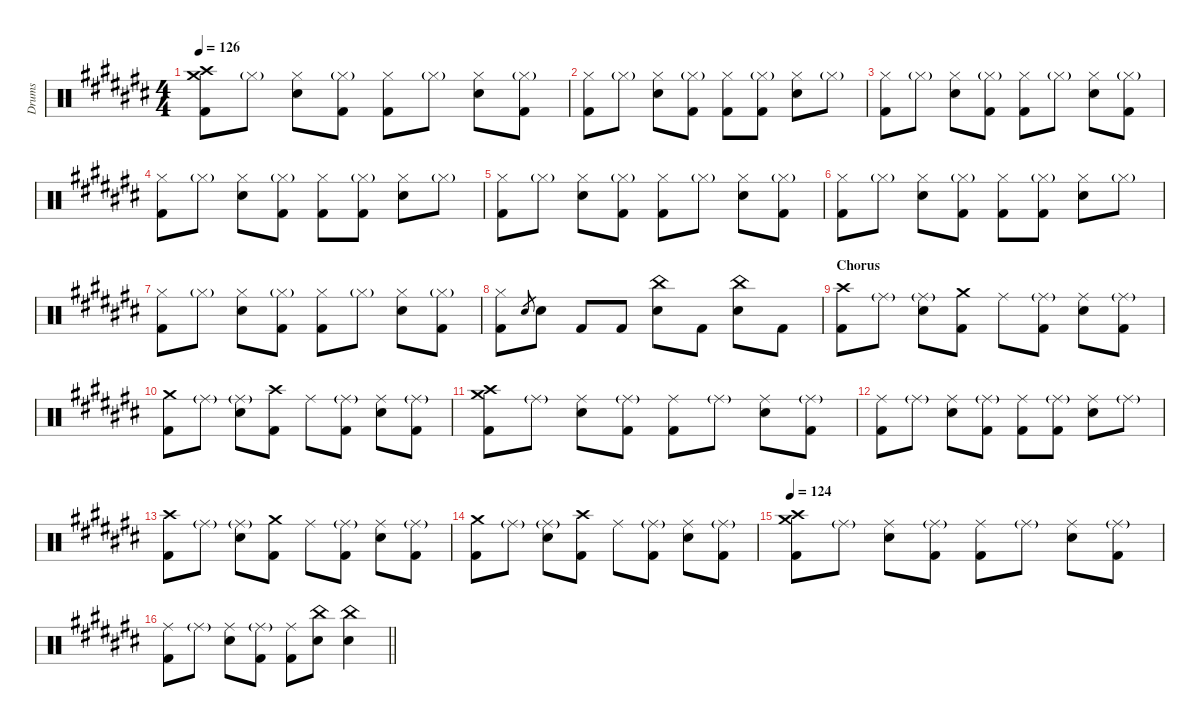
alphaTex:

\hideDynamics
\bracketExtendMode nobrackets
\otherSystemsTrackNameOrientation horizontal
\track ("Drumkit" "Drums") {defaultSystemsLayout 4 instrument percussion}
\staff {score}
\articulation defaults
\ts (4 4)
\tempo 126
\clef neutral
\ks c#
("Crash medium (hit)"{acc forcenatural} "Kick (hit) 2"{acc forcenatural} "Crash high (hit)"{acc forcenatural}).8{dy ff beam Down} "Hi-Hat (closed)"{g acc forcenatural}.8{beam Down} ("Hi-Hat (closed)"{acc forcenatural} "Snare (hit) 2"{acc forcenatural}).8{beam Down} ("Hi-Hat (closed)"{g acc forcenatural} "Kick (hit) 2"{acc forcenatural}).8{beam Down} ("Hi-Hat (closed)"{acc forcenatural} "Kick (hit) 2"{acc forcenatural}).8{beam Down} "Hi-Hat (closed)"{g acc forcenatural}.8{beam Down} ("Hi-Hat (closed)"{acc forcenatural} "Snare (hit) 2"{acc forcenatural}).8{beam Down} ("Hi-Hat (closed)"{g acc forcenatural} "Kick (hit) 2"{acc forcenatural}).8{beam Down} |
("Hi-Hat (closed)"{acc forcenatural} "Kick (hit) 2"{acc forcenatural}).8{beam Down} "Hi-Hat (closed)"{g acc forcenatural}.8{beam Down} ("Hi-Hat (closed)"{acc forcenatural} "Snare (hit) 2"{acc forcenatural}).8{beam Down} ("Hi-Hat (closed)"{g acc forcenatural} "Kick (hit) 2"{acc forcenatural}).8{beam Down} ("Hi-Hat (closed)"{acc forcenatural} "Kick (hit) 2"{acc forcenatural}).8{beam Down} ("Hi-Hat (closed)"{g acc forcenatural} "Kick (hit) 2"{acc forcenatural}).8{beam Down} ("Hi-Hat (closed)"{acc forcenatural} "Snare (hit) 2"{acc forcenatural}).8{beam Down} "Hi-Hat (closed)"{g acc forcenatural}.8{beam Down} |
("Hi-Hat (closed)"{acc forcenatural} "Kick (hit) 2"{acc forcenatural}).8{beam Down} "Hi-Hat (closed)"{g acc forcenatural}.8{beam Down} ("Hi-Hat (closed)"{acc forcenatural} "Snare (hit) 2"{acc forcenatural}).8{beam Down} ("Hi-Hat (closed)"{g acc forcenatural} "Kick (hit) 2"{acc forcenatural}).8{beam Down} ("Hi-Hat (closed)"{acc forcenatural} "Kick (hit) 2"{acc forcenatural}).8{beam Down} "Hi-Hat (closed)"{g acc forcenatural}.8{beam Down} ("Hi-Hat (closed)"{acc forcenatural} "Snare (hit) 2"{acc forcenatural}).8{beam Down} ("Hi-Hat (closed)"{g acc forcenatural} "Kick (hit) 2"{acc forcenatural}).8{beam Down} |
("Hi-Hat (closed)"{acc forcenatural} "Kick (hit) 2"{acc forcenatural}).8{beam Down} "Hi-Hat (closed)"{g acc forcenatural}.8{beam Down} ("Hi-Hat (closed)"{acc forcenatural} "Snare (hit) 2"{acc forcenatural}).8{beam Down} ("Hi-Hat (closed)"{g acc forcenatural} "Kick (hit) 2"{acc forcenatural}).8{beam Down} ("Hi-Hat (closed)"{acc forcenatural} "Kick (hit) 2"{acc forcenatural}).8{beam Down} ("Hi-Hat (closed)"{g acc forcenatural} "Kick (hit) 2"{acc forcenatural}).8{beam Down} ("Hi-Hat (closed)"{acc forcenatural} "Snare (hit) 2"{acc forcenatural}).8{beam Down} "Hi-Hat (closed)"{g acc forcenatural}.8{beam Down} |
("Hi-Hat (closed)"{acc forcenatural} "Kick (hit) 2"{acc forcenatural}).8{beam Down} "Hi-Hat (closed)"{g acc forcenatural}.8{beam Down} ("Hi-Hat (closed)"{acc forcenatural} "Snare (hit) 2"{acc forcenatural}).8{beam Down} ("Hi-Hat (closed)"{g acc forcenatural} "Kick (hit) 2"{acc forcenatural}).8{beam Down} ("Hi-Hat (closed)"{acc forcenatural} "Kick (hit) 2"{acc forcenatural}).8{beam Down} "Hi-Hat (closed)"{g acc forcenatural}.8{beam Down} ("Hi-Hat (closed)"{acc forcenatural} "Snare (hit) 2"{acc forcenatural}).8{beam Down} ("Hi-Hat (closed)"{g acc forcenatural} "Kick (hit) 2"{acc forcenatural}).8{beam Down} |
("Hi-Hat (closed)"{acc forcenatural} "Kick (hit) 2"{acc forcenatural}).8{beam Down} "Hi-Hat (closed)"{g acc forcenatural}.8{beam Down} ("Hi-Hat (closed)"{acc forcenatural} "Snare (hit) 2"{acc forcenatural}).8{beam Down} ("Hi-Hat (closed)"{g acc forcenatural} "Kick (hit) 2"{acc forcenatural}).8{beam Down} ("Hi-Hat (closed)"{acc forcenatural} "Kick (hit) 2"{acc forcenatural}).8{beam Down} ("Hi-Hat (closed)"{g acc forcenatural} "Kick (hit) 2"{acc forcenatural}).8{beam Down} ("Hi-Hat (closed)"{acc forcenatural} "Snare (hit) 2"{acc forcenatural}).8{beam Down} "Hi-Hat (closed)"{g acc forcenatural}.8{beam Down} |
("Hi-Hat (closed)"{acc forcenatural} "Kick (hit) 2"{acc forcenatural}).8{beam Down} "Hi-Hat (closed)"{g acc forcenatural}.8{beam Down} ("Hi-Hat (closed)"{acc forcenatural} "Snare (hit) 2"{acc forcenatural}).8{beam Down} ("Hi-Hat (closed)"{g acc forcenatural} "Kick (hit) 2"{acc forcenatural}).8{beam Down} ("Hi-Hat (closed)"{acc forcenatural} "Kick (hit) 2"{acc forcenatural}).8{beam Down} "Hi-Hat (closed)"{g acc forcenatural}.8{beam Down} ("Hi-Hat (closed)"{acc forcenatural} "Snare (hit) 2"{acc forcenatural}).8{beam Down} ("Hi-Hat (closed)"{g acc forcenatural} "Kick (hit) 2"{acc forcenatural}).8{beam Down} |
("Hi-Hat (closed)"{acc forcenatural} "Kick (hit) 2"{acc forcenatural}).8{beam Down} "Snare (hit) 2"{acc forcenatural}.8{gr beam Up} "Snare (hit) 2"{acc forcenatural}.8{beam Down} "Kick (hit) 2"{acc forcenatural}.8{beam Up} "Kick (hit) 2"{acc forcenatural}.8{beam Up} ("Snare (hit) 2"{acc forcenatural} "China (hit)"{acc forcenatural}).8{beam Down} "Kick (hit) 2"{acc forcenatural}.8{beam Down} ("Snare (hit) 2"{acc forcenatural} "China (hit)"{acc forcenatural}).8{beam Down} "Kick (hit) 2"{acc forcenatural}.8{beam Down} |
\section ("" "Chorus")
("Kick (hit) 2"{acc forcenatural} "Crash high (hit)"{acc forcenatural}).8{beam Down} "Ride (middle)"{g acc forcenatural}.8{beam Down} ("Ride (middle)"{g acc forcenatural} "Snare (hit) 2"{acc forcenatural}).8{beam Down} ("Kick (hit) 2"{acc forcenatural} "Crash medium (hit)"{acc forcenatural}).8{beam Down} "Ride (middle)"{acc forcenatural}.8{beam Down} ("Ride (middle)"{g acc forcenatural} "Kick (hit) 2"{acc forcenatural}).8{beam Down} ("Ride (middle)"{acc forcenatural} "Snare (hit) 2"{acc forcenatural}).8{beam Down} ("Ride (middle)"{g acc forcenatural} "Kick (hit) 2"{acc forcenatural}).8{beam Down} |
("Crash medium (hit)"{acc forcenatural} "Kick (hit) 2"{acc forcenatural}).8{beam Down} "Ride (middle)"{g acc forcenatural}.8{beam Down} ("Ride (middle)"{g acc forcenatural} "Snare (hit) 2"{acc forcenatural}).8{beam Down} ("Crash high (hit)"{acc forcenatural} "Kick (hit) 2"{acc forcenatural}).8{beam Down} "Ride (middle)"{acc forcenatural}.8{beam Down} ("Ride (middle)"{g acc forcenatural} "Kick (hit) 2"{acc forcenatural}).8{beam Down} ("Ride (middle)"{acc forcenatural} "Snare (hit) 2"{acc forcenatural}).8{beam Down} ("Ride (middle)"{g acc forcenatural} "Kick (hit) 2"{acc forcenatural}).8{beam Down} |
("Crash medium (hit)"{acc forcenatural} "Kick (hit) 2"{acc forcenatural} "Crash high (hit)"{acc forcenatural}).8{beam Down} "Ride (middle)"{g acc forcenatural}.8{beam Down} ("Ride (middle)"{acc forcenatural} "Snare (hit) 2"{acc forcenatural}).8{beam Down} ("Ride (middle)"{g acc forcenatural} "Kick (hit) 2"{acc forcenatural}).8{beam Down} ("Ride (middle)"{acc forcenatural} "Kick (hit) 2"{acc forcenatural}).8{beam Down} "Ride (middle)"{g acc forcenatural}.8{beam Down} ("Ride (middle)"{acc forcenatural} "Snare (hit) 2"{acc forcenatural}).8{beam Down} ("Ride (middle)"{g acc forcenatural} "Kick (hit) 2"{acc forcenatural}).8{beam Down} |
("Ride (middle)"{acc forcenatural} "Kick (hit) 2"{acc forcenatural}).8{beam Down} "Ride (middle)"{g acc forcenatural}.8{beam Down} ("Ride (middle)"{acc forcenatural} "Snare (hit) 2"{acc forcenatural}).8{beam Down} ("Ride (middle)"{g acc forcenatural} "Kick (hit) 2"{acc forcenatural}).8{beam Down} ("Ride (middle)"{acc forcenatural} "Kick (hit) 2"{acc forcenatural}).8{beam Down} ("Ride (middle)"{g acc forcenatural} "Kick (hit) 2"{acc forcenatural}).8{beam Down} ("Ride (middle)"{acc forcenatural} "Snare (hit) 2"{acc forcenatural}).8{beam Down} "Ride (middle)"{g acc forcenatural}.8{beam Down} |
("Kick (hit) 2"{acc forcenatural} "Crash high (hit)"{acc forcenatural}).8{beam Down} "Ride (middle)"{g acc forcenatural}.8{beam Down} ("Ride (middle)"{g acc forcenatural} "Snare (hit) 2"{acc forcenatural}).8{beam Down} ("Kick (hit) 2"{acc forcenatural} "Crash medium (hit)"{acc forcenatural}).8{beam Down} "Ride (middle)"{acc forcenatural}.8{beam Down} ("Ride (middle)"{g acc forcenatural} "Kick (hit) 2"{acc forcenatural}).8{beam Down} ("Ride (middle)"{acc forcenatural} "Snare (hit) 2"{acc forcenatural}).8{beam Down} ("Ride (middle)"{g acc forcenatural} "Kick (hit) 2"{acc forcenatural}).8{beam Down} |
("Crash medium (hit)"{acc forcenatural} "Kick (hit) 2"{acc forcenatural}).8{beam Down} "Ride (middle)"{g acc forcenatural}.8{beam Down} ("Ride (middle)"{g acc forcenatural} "Snare (hit) 2"{acc forcenatural}).8{beam Down} ("Crash high (hit)"{acc forcenatural} "Kick (hit) 2"{acc forcenatural}).8{beam Down} "Ride (middle)"{acc forcenatural}.8{beam Down} ("Ride (middle)"{g acc forcenatural} "Kick (hit) 2"{acc forcenatural}).8{beam Down} ("Ride (middle)"{acc forcenatural} "Snare (hit) 2"{acc forcenatural}).8{beam Down} ("Ride (middle)"{g acc forcenatural} "Kick (hit) 2"{acc forcenatural}).8{beam Down} |
\tempo 124
("Crash medium (hit)"{acc forcenatural} "Kick (hit) 2"{acc forcenatural} "Crash high (hit)"{acc forcenatural}).8{beam Down} "Ride (middle)"{g acc forcenatural}.8{beam Down} ("Ride (middle)"{acc forcenatural} "Snare (hit) 2"{acc forcenatural}).8{beam Down} ("Ride (middle)"{g acc forcenatural} "Kick (hit) 2"{acc forcenatural}).8{beam Down} ("Ride (middle)"{acc forcenatural} "Kick (hit) 2"{acc forcenatural}).8{beam Down} "Ride (middle)"{g acc forcenatural}.8{beam Down} ("Ride (middle)"{acc forcenatural} "Snare (hit) 2"{acc forcenatural}).8{beam Down} ("Ride (middle)"{g acc forcenatural} "Kick (hit) 2"{acc forcenatural}).8{beam Down} |
\barLineRight lightlight
("Ride (middle)"{acc forcenatural} "Kick (hit) 2"{acc forcenatural}).8{beam Down} "Ride (middle)"{g acc forcenatural}.8{beam Down} ("Ride (middle)"{acc forcenatural} "Snare (hit) 2"{acc forcenatural}).8{beam Down} ("Ride (middle)"{g acc forcenatural} "Kick (hit) 2"{acc forcenatural}).8{beam Down} ("Ride (middle)"{acc forcenatural} "Kick (hit) 2"{acc forcenatural}).8{beam Down} ("China (hit)"{acc forcenatural} "Snare (hit) 2"{acc forcenatural}).8{beam Down} ("China (hit)"{acc forcenatural} "Snare (hit) 2"{acc forcenatural}).4{beam Down}
